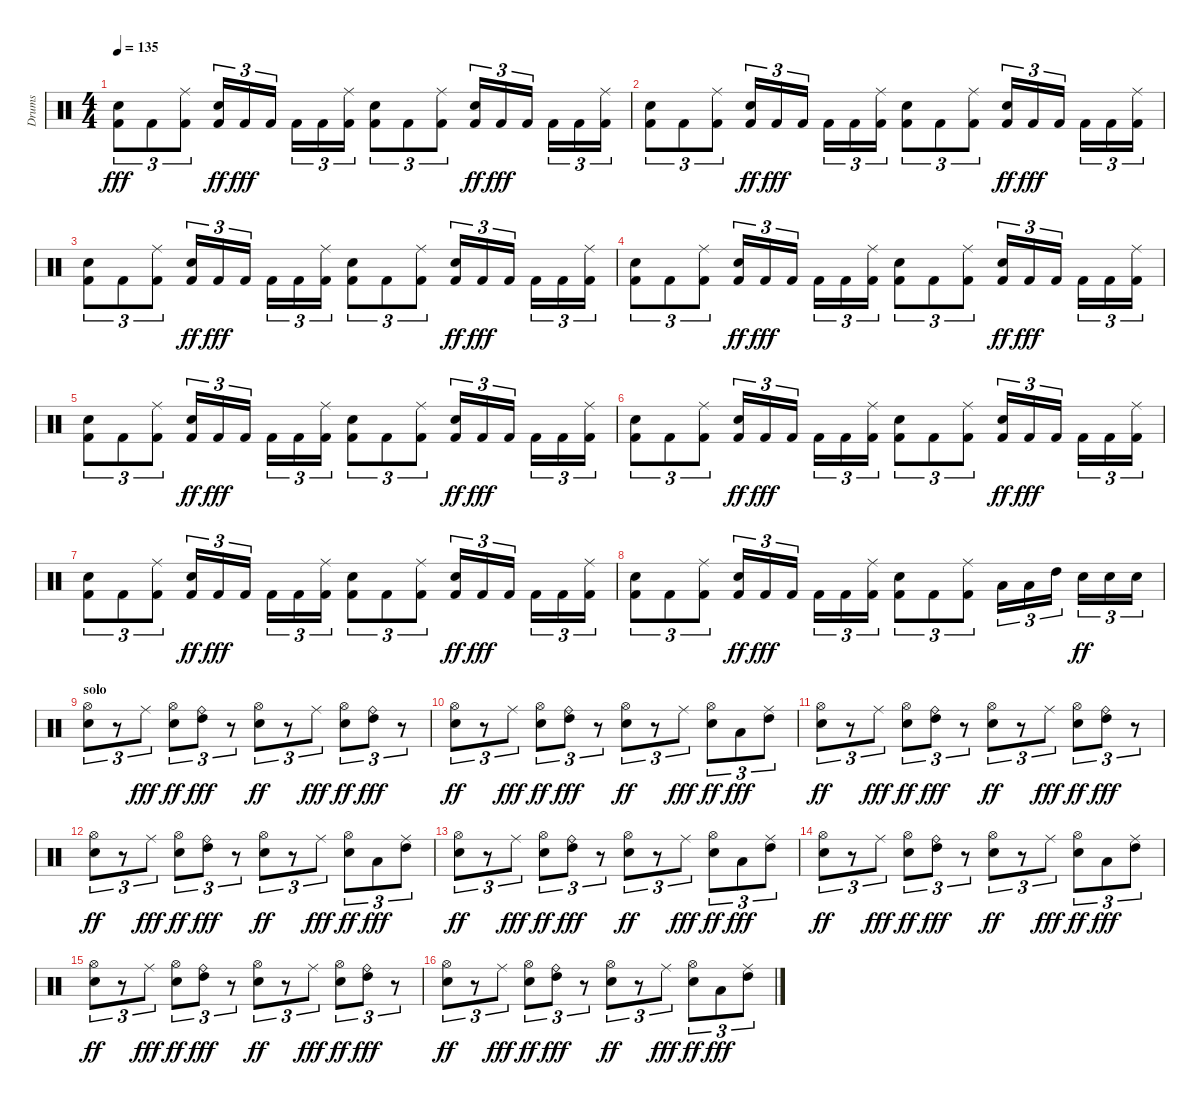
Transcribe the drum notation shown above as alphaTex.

\track ("Drums" "Drums") {instrument percussion}
\staff {score}
\articulation defaults
\ts (4 4)
\tempo 135
\clef neutral
\ks c
("Electric Snare (hit)" "Kick (hit) 2").8{tu (3 2) dy fff} "Kick (hit) 2".8{tu (3 2)} ("Kick (hit) 2" "Ride (middle)").8{tu (3 2)} ("Kick (hit) 2" "Electric Snare (hit)").16{tu (3 2) dy ff} "Kick (hit) 2".16{tu (3 2) dy fff} "Kick (hit) 2".16{tu (3 2)} "Kick (hit) 2".16{tu (3 2)} "Kick (hit) 2".16{tu (3 2)} ("Kick (hit) 2" "Ride (middle)").16{tu (3 2)} ("Electric Snare (hit)" "Kick (hit) 2").8{tu (3 2)} "Kick (hit) 2".8{tu (3 2)} ("Kick (hit) 2" "Ride (middle)").8{tu (3 2)} ("Kick (hit) 2" "Electric Snare (hit)").16{tu (3 2) dy ff} "Kick (hit) 2".16{tu (3 2) dy fff} "Kick (hit) 2".16{tu (3 2)} "Kick (hit) 2".16{tu (3 2)} "Kick (hit) 2".16{tu (3 2)} ("Kick (hit) 2" "Ride (middle)").16{tu (3 2)} |
("Electric Snare (hit)" "Kick (hit) 2").8{tu (3 2)} "Kick (hit) 2".8{tu (3 2)} ("Kick (hit) 2" "Ride (middle)").8{tu (3 2)} ("Kick (hit) 2" "Electric Snare (hit)").16{tu (3 2) dy ff} "Kick (hit) 2".16{tu (3 2) dy fff} "Kick (hit) 2".16{tu (3 2)} "Kick (hit) 2".16{tu (3 2)} "Kick (hit) 2".16{tu (3 2)} ("Kick (hit) 2" "Ride (middle)").16{tu (3 2)} ("Electric Snare (hit)" "Kick (hit) 2").8{tu (3 2)} "Kick (hit) 2".8{tu (3 2)} ("Kick (hit) 2" "Ride (middle)").8{tu (3 2)} ("Kick (hit) 2" "Electric Snare (hit)").16{tu (3 2) dy ff} "Kick (hit) 2".16{tu (3 2) dy fff} "Kick (hit) 2".16{tu (3 2)} "Kick (hit) 2".16{tu (3 2)} "Kick (hit) 2".16{tu (3 2)} ("Kick (hit) 2" "Ride (middle)").16{tu (3 2)} |
("Electric Snare (hit)" "Kick (hit) 2").8{tu (3 2)} "Kick (hit) 2".8{tu (3 2)} ("Kick (hit) 2" "Ride (middle)").8{tu (3 2)} ("Kick (hit) 2" "Electric Snare (hit)").16{tu (3 2) dy ff} "Kick (hit) 2".16{tu (3 2) dy fff} "Kick (hit) 2".16{tu (3 2)} "Kick (hit) 2".16{tu (3 2)} "Kick (hit) 2".16{tu (3 2)} ("Kick (hit) 2" "Ride (middle)").16{tu (3 2)} ("Electric Snare (hit)" "Kick (hit) 2").8{tu (3 2)} "Kick (hit) 2".8{tu (3 2)} ("Kick (hit) 2" "Ride (middle)").8{tu (3 2)} ("Kick (hit) 2" "Electric Snare (hit)").16{tu (3 2) dy ff} "Kick (hit) 2".16{tu (3 2) dy fff} "Kick (hit) 2".16{tu (3 2)} "Kick (hit) 2".16{tu (3 2)} "Kick (hit) 2".16{tu (3 2)} ("Kick (hit) 2" "Ride (middle)").16{tu (3 2)} |
("Electric Snare (hit)" "Kick (hit) 2").8{tu (3 2)} "Kick (hit) 2".8{tu (3 2)} ("Kick (hit) 2" "Ride (middle)").8{tu (3 2)} ("Kick (hit) 2" "Electric Snare (hit)").16{tu (3 2) dy ff} "Kick (hit) 2".16{tu (3 2) dy fff} "Kick (hit) 2".16{tu (3 2)} "Kick (hit) 2".16{tu (3 2)} "Kick (hit) 2".16{tu (3 2)} ("Kick (hit) 2" "Ride (middle)").16{tu (3 2)} ("Electric Snare (hit)" "Kick (hit) 2").8{tu (3 2)} "Kick (hit) 2".8{tu (3 2)} ("Kick (hit) 2" "Ride (middle)").8{tu (3 2)} ("Kick (hit) 2" "Electric Snare (hit)").16{tu (3 2) dy ff} "Kick (hit) 2".16{tu (3 2) dy fff} "Kick (hit) 2".16{tu (3 2)} "Kick (hit) 2".16{tu (3 2)} "Kick (hit) 2".16{tu (3 2)} ("Kick (hit) 2" "Ride (middle)").16{tu (3 2)} |
("Electric Snare (hit)" "Kick (hit) 2").8{tu (3 2)} "Kick (hit) 2".8{tu (3 2)} ("Kick (hit) 2" "Ride (middle)").8{tu (3 2)} ("Kick (hit) 2" "Electric Snare (hit)").16{tu (3 2) dy ff} "Kick (hit) 2".16{tu (3 2) dy fff} "Kick (hit) 2".16{tu (3 2)} "Kick (hit) 2".16{tu (3 2)} "Kick (hit) 2".16{tu (3 2)} ("Kick (hit) 2" "Ride (middle)").16{tu (3 2)} ("Electric Snare (hit)" "Kick (hit) 2").8{tu (3 2)} "Kick (hit) 2".8{tu (3 2)} ("Kick (hit) 2" "Ride (middle)").8{tu (3 2)} ("Kick (hit) 2" "Electric Snare (hit)").16{tu (3 2) dy ff} "Kick (hit) 2".16{tu (3 2) dy fff} "Kick (hit) 2".16{tu (3 2)} "Kick (hit) 2".16{tu (3 2)} "Kick (hit) 2".16{tu (3 2)} ("Kick (hit) 2" "Ride (middle)").16{tu (3 2)} |
("Electric Snare (hit)" "Kick (hit) 2").8{tu (3 2)} "Kick (hit) 2".8{tu (3 2)} ("Kick (hit) 2" "Ride (middle)").8{tu (3 2)} ("Kick (hit) 2" "Electric Snare (hit)").16{tu (3 2) dy ff} "Kick (hit) 2".16{tu (3 2) dy fff} "Kick (hit) 2".16{tu (3 2)} "Kick (hit) 2".16{tu (3 2)} "Kick (hit) 2".16{tu (3 2)} ("Kick (hit) 2" "Ride (middle)").16{tu (3 2)} ("Electric Snare (hit)" "Kick (hit) 2").8{tu (3 2)} "Kick (hit) 2".8{tu (3 2)} ("Kick (hit) 2" "Ride (middle)").8{tu (3 2)} ("Kick (hit) 2" "Electric Snare (hit)").16{tu (3 2) dy ff} "Kick (hit) 2".16{tu (3 2) dy fff} "Kick (hit) 2".16{tu (3 2)} "Kick (hit) 2".16{tu (3 2)} "Kick (hit) 2".16{tu (3 2)} ("Kick (hit) 2" "Ride (middle)").16{tu (3 2)} |
("Electric Snare (hit)" "Kick (hit) 2").8{tu (3 2)} "Kick (hit) 2".8{tu (3 2)} ("Kick (hit) 2" "Ride (middle)").8{tu (3 2)} ("Kick (hit) 2" "Electric Snare (hit)").16{tu (3 2) dy ff} "Kick (hit) 2".16{tu (3 2) dy fff} "Kick (hit) 2".16{tu (3 2)} "Kick (hit) 2".16{tu (3 2)} "Kick (hit) 2".16{tu (3 2)} ("Kick (hit) 2" "Ride (middle)").16{tu (3 2)} ("Electric Snare (hit)" "Kick (hit) 2").8{tu (3 2)} "Kick (hit) 2".8{tu (3 2)} ("Kick (hit) 2" "Ride (middle)").8{tu (3 2)} ("Kick (hit) 2" "Electric Snare (hit)").16{tu (3 2) dy ff} "Kick (hit) 2".16{tu (3 2) dy fff} "Kick (hit) 2".16{tu (3 2)} "Kick (hit) 2".16{tu (3 2)} "Kick (hit) 2".16{tu (3 2)} ("Kick (hit) 2" "Ride (middle)").16{tu (3 2)} |
("Electric Snare (hit)" "Kick (hit) 2").8{tu (3 2)} "Kick (hit) 2".8{tu (3 2)} ("Kick (hit) 2" "Ride (middle)").8{tu (3 2)} ("Kick (hit) 2" "Electric Snare (hit)").16{tu (3 2) dy ff} "Kick (hit) 2".16{tu (3 2) dy fff} "Kick (hit) 2".16{tu (3 2)} "Kick (hit) 2".16{tu (3 2)} "Kick (hit) 2".16{tu (3 2)} ("Kick (hit) 2" "Ride (middle)").16{tu (3 2)} ("Electric Snare (hit)" "Kick (hit) 2").8{tu (3 2)} "Kick (hit) 2".8{tu (3 2)} ("Kick (hit) 2" "Ride (middle)").8{tu (3 2)} "Low Tom (hit)".16{tu (3 2)} "Low Tom (hit)".16{tu (3 2)} "High Tom (hit)".16{tu (3 2)} "Electric Snare (hit)".16{tu (3 2) dy ff} "Electric Snare (hit)".16{tu (3 2)} "Electric Snare (hit)".16{tu (3 2)} |
\section ("" "solo")
("Electric Snare (hit)" "Hi-Hat (open)").8{tu (3 2)} r.8{tu (3 2)} "Ride (middle)".8{tu (3 2) dy fff} ("Electric Snare (hit)" "Hi-Hat (open)").8{tu (3 2) dy ff} ("Ride (bell)" "High Tom (hit)").8{tu (3 2) dy fff} r.8{tu (3 2)} ("Electric Snare (hit)" "Hi-Hat (open)").8{tu (3 2) dy ff} r.8{tu (3 2)} "Ride (middle)".8{tu (3 2) dy fff} ("Electric Snare (hit)" "Hi-Hat (open)").8{tu (3 2) dy ff} ("Ride (bell)" "High Tom (hit)").8{tu (3 2) dy fff} r.8{tu (3 2)} |
("Electric Snare (hit)" "Hi-Hat (open)").8{tu (3 2) dy ff} r.8{tu (3 2)} "Ride (middle)".8{tu (3 2) dy fff} ("Electric Snare (hit)" "Hi-Hat (open)").8{tu (3 2) dy ff} ("Ride (bell)" "High Tom (hit)").8{tu (3 2) dy fff} r.8{tu (3 2)} ("Electric Snare (hit)" "Hi-Hat (open)").8{tu (3 2) dy ff} r.8{tu (3 2)} "Ride (middle)".8{tu (3 2) dy fff} ("Electric Snare (hit)" "Hi-Hat (open)").8{tu (3 2) dy ff} "Low Tom (hit)".8{tu (3 2) dy fff} ("High Tom (hit)" "Ride (middle)").8{tu (3 2)} |
("Electric Snare (hit)" "Hi-Hat (open)").8{tu (3 2) dy ff} r.8{tu (3 2)} "Ride (middle)".8{tu (3 2) dy fff} ("Electric Snare (hit)" "Hi-Hat (open)").8{tu (3 2) dy ff} ("Ride (bell)" "High Tom (hit)").8{tu (3 2) dy fff} r.8{tu (3 2)} ("Electric Snare (hit)" "Hi-Hat (open)").8{tu (3 2) dy ff} r.8{tu (3 2)} "Ride (middle)".8{tu (3 2) dy fff} ("Electric Snare (hit)" "Hi-Hat (open)").8{tu (3 2) dy ff} ("Ride (bell)" "High Tom (hit)").8{tu (3 2) dy fff} r.8{tu (3 2)} |
("Electric Snare (hit)" "Hi-Hat (open)").8{tu (3 2) dy ff} r.8{tu (3 2)} "Ride (middle)".8{tu (3 2) dy fff} ("Electric Snare (hit)" "Hi-Hat (open)").8{tu (3 2) dy ff} ("Ride (bell)" "High Tom (hit)").8{tu (3 2) dy fff} r.8{tu (3 2)} ("Electric Snare (hit)" "Hi-Hat (open)").8{tu (3 2) dy ff} r.8{tu (3 2)} "Ride (middle)".8{tu (3 2) dy fff} ("Electric Snare (hit)" "Hi-Hat (open)").8{tu (3 2) dy ff} "Low Tom (hit)".8{tu (3 2) dy fff} ("High Tom (hit)" "Ride (middle)").8{tu (3 2)} |
("Electric Snare (hit)" "Hi-Hat (open)").8{tu (3 2) dy ff} r.8{tu (3 2)} "Ride (middle)".8{tu (3 2) dy fff} ("Electric Snare (hit)" "Hi-Hat (open)").8{tu (3 2) dy ff} ("Ride (bell)" "High Tom (hit)").8{tu (3 2) dy fff} r.8{tu (3 2)} ("Electric Snare (hit)" "Hi-Hat (open)").8{tu (3 2) dy ff} r.8{tu (3 2)} "Ride (middle)".8{tu (3 2) dy fff} ("Electric Snare (hit)" "Hi-Hat (open)").8{tu (3 2) dy ff} "Low Tom (hit)".8{tu (3 2) dy fff} ("High Tom (hit)" "Ride (middle)").8{tu (3 2)} |
("Electric Snare (hit)" "Hi-Hat (open)").8{tu (3 2) dy ff} r.8{tu (3 2)} "Ride (middle)".8{tu (3 2) dy fff} ("Electric Snare (hit)" "Hi-Hat (open)").8{tu (3 2) dy ff} ("Ride (bell)" "High Tom (hit)").8{tu (3 2) dy fff} r.8{tu (3 2)} ("Electric Snare (hit)" "Hi-Hat (open)").8{tu (3 2) dy ff} r.8{tu (3 2)} "Ride (middle)".8{tu (3 2) dy fff} ("Electric Snare (hit)" "Hi-Hat (open)").8{tu (3 2) dy ff} "Low Tom (hit)".8{tu (3 2) dy fff} ("High Tom (hit)" "Ride (middle)").8{tu (3 2)} |
("Electric Snare (hit)" "Hi-Hat (open)").8{tu (3 2) dy ff} r.8{tu (3 2)} "Ride (middle)".8{tu (3 2) dy fff} ("Electric Snare (hit)" "Hi-Hat (open)").8{tu (3 2) dy ff} ("Ride (bell)" "High Tom (hit)").8{tu (3 2) dy fff} r.8{tu (3 2)} ("Electric Snare (hit)" "Hi-Hat (open)").8{tu (3 2) dy ff} r.8{tu (3 2)} "Ride (middle)".8{tu (3 2) dy fff} ("Electric Snare (hit)" "Hi-Hat (open)").8{tu (3 2) dy ff} ("Ride (bell)" "High Tom (hit)").8{tu (3 2) dy fff} r.8{tu (3 2)} |
("Electric Snare (hit)" "Hi-Hat (open)").8{tu (3 2) dy ff} r.8{tu (3 2)} "Ride (middle)".8{tu (3 2) dy fff} ("Electric Snare (hit)" "Hi-Hat (open)").8{tu (3 2) dy ff} ("Ride (bell)" "High Tom (hit)").8{tu (3 2) dy fff} r.8{tu (3 2)} ("Electric Snare (hit)" "Hi-Hat (open)").8{tu (3 2) dy ff} r.8{tu (3 2)} "Ride (middle)".8{tu (3 2) dy fff} ("Electric Snare (hit)" "Hi-Hat (open)").8{tu (3 2) dy ff} "Low Tom (hit)".8{tu (3 2) dy fff} ("High Tom (hit)" "Ride (middle)").8{tu (3 2)}
